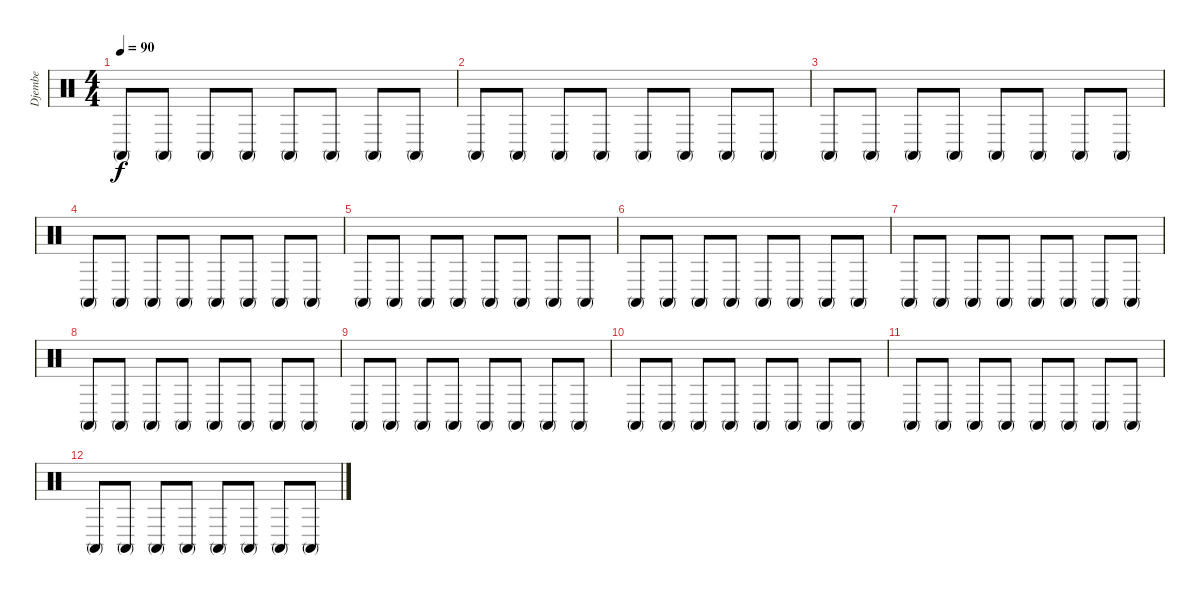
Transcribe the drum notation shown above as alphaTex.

\track ("Djembe" "Djembe") {instrument percussion}
\staff {score}
\articulation defaults
\ts (4 4)
\tempo 90
\clef neutral
\ks c "Conga high (mute)".8{dy f} "Conga high (mute)".8 "Conga high (mute)".8 "Conga high (mute)".8 "Conga high (mute)".8 "Conga high (mute)".8 "Conga high (mute)".8 "Conga high (mute)".8
|
"Conga high (mute)".8 "Conga high (mute)".8 "Conga high (mute)".8 "Conga high (mute)".8 "Conga high (mute)".8 "Conga high (mute)".8 "Conga high (mute)".8 "Conga high (mute)".8 |
"Conga high (mute)".8 "Conga high (mute)".8 "Conga high (mute)".8 "Conga high (mute)".8 "Conga high (mute)".8 "Conga high (mute)".8 "Conga high (mute)".8 "Conga high (mute)".8 |
"Conga high (mute)".8 "Conga high (mute)".8 "Conga high (mute)".8 "Conga high (mute)".8 "Conga high (mute)".8 "Conga high (mute)".8 "Conga high (mute)".8 "Conga high (mute)".8 |
"Conga high (mute)".8 "Conga high (mute)".8 "Conga high (mute)".8 "Conga high (mute)".8 "Conga high (mute)".8 "Conga high (mute)".8 "Conga high (mute)".8 "Conga high (mute)".8 |
"Conga high (mute)".8 "Conga high (mute)".8 "Conga high (mute)".8 "Conga high (mute)".8 "Conga high (mute)".8 "Conga high (mute)".8 "Conga high (mute)".8 "Conga high (mute)".8 |
"Conga high (mute)".8 "Conga high (mute)".8 "Conga high (mute)".8 "Conga high (mute)".8 "Conga high (mute)".8 "Conga high (mute)".8 "Conga high (mute)".8 "Conga high (mute)".8 |
"Conga high (mute)".8 "Conga high (mute)".8 "Conga high (mute)".8 "Conga high (mute)".8 "Conga high (mute)".8 "Conga high (mute)".8 "Conga high (mute)".8 "Conga high (mute)".8 |
"Conga high (mute)".8 "Conga high (mute)".8 "Conga high (mute)".8 "Conga high (mute)".8 "Conga high (mute)".8 "Conga high (mute)".8 "Conga high (mute)".8 "Conga high (mute)".8 |
"Conga high (mute)".8 "Conga high (mute)".8 "Conga high (mute)".8 "Conga high (mute)".8 "Conga high (mute)".8 "Conga high (mute)".8 "Conga high (mute)".8 "Conga high (mute)".8 |
"Conga high (mute)".8 "Conga high (mute)".8 "Conga high (mute)".8 "Conga high (mute)".8 "Conga high (mute)".8 "Conga high (mute)".8 "Conga high (mute)".8 "Conga high (mute)".8 |
"Conga high (mute)".8 "Conga high (mute)".8 "Conga high (mute)".8 "Conga high (mute)".8 "Conga high (mute)".8 "Conga high (mute)".8 "Conga high (mute)".8 "Conga high (mute)".8
